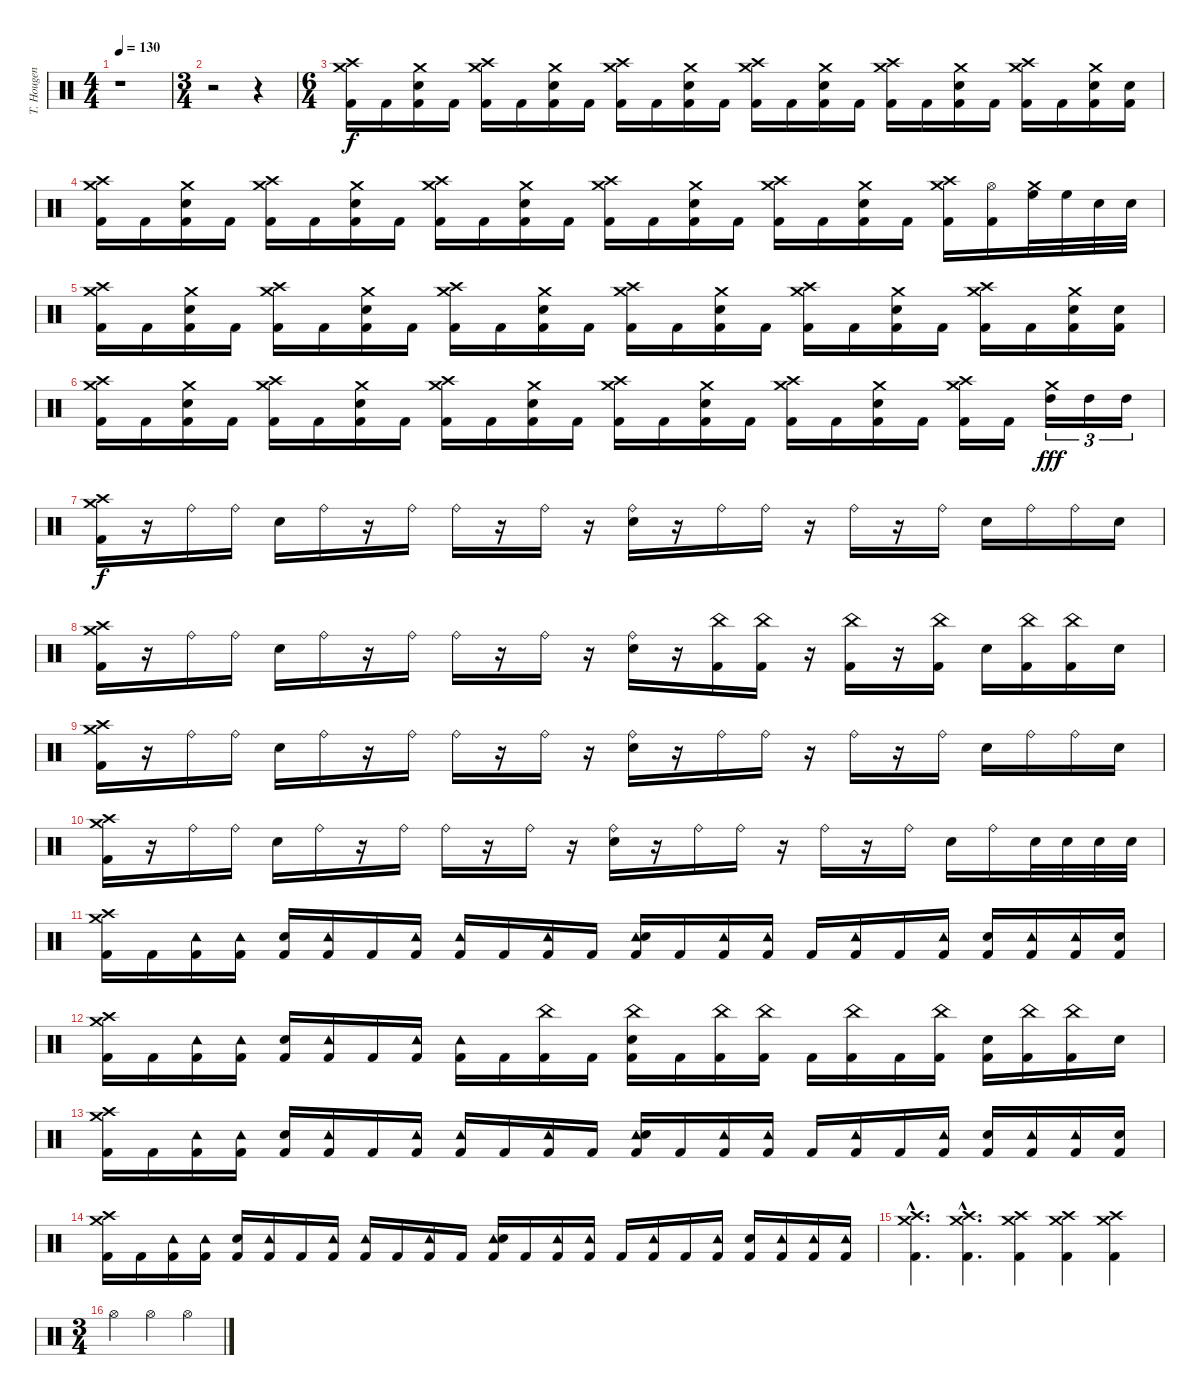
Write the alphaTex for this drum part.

\track ("T. Hougen - Drums" "T. Hougen ") {instrument percussion}
\staff {score}
\articulation defaults
\ts (4 4)
\tempo 130
\clef neutral
\ks c
r.1{dy f} |
\ts (3 4)
r.2 r.4 |
\ts (6 4)
("Crash medium (hit)" "Crash high (hit)" "Kick (hit) 2").16 "Kick (hit) 2".16 ("Crash medium (hit)" "Electric Snare (hit)" "Kick (hit) 2").16 "Kick (hit) 2".16 ("Crash medium (hit)" "Crash high (hit)" "Kick (hit) 2").16 "Kick (hit) 2".16 ("Crash medium (hit)" "Electric Snare (hit)" "Kick (hit) 2").16 "Kick (hit) 2".16 ("Crash medium (hit)" "Crash high (hit)" "Kick (hit) 2").16 "Kick (hit) 2".16 ("Crash medium (hit)" "Electric Snare (hit)" "Kick (hit) 2").16 "Kick (hit) 2".16 ("Crash medium (hit)" "Crash high (hit)" "Kick (hit) 2").16 "Kick (hit) 2".16 ("Crash medium (hit)" "Electric Snare (hit)" "Kick (hit) 2").16 "Kick (hit) 2".16 ("Crash medium (hit)" "Crash high (hit)" "Kick (hit) 2").16 "Kick (hit) 2".16 ("Crash medium (hit)" "Electric Snare (hit)" "Kick (hit) 2").16 "Kick (hit) 2".16 ("Crash medium (hit)" "Crash high (hit)" "Kick (hit) 2").16 "Kick (hit) 2".16 ("Crash medium (hit)" "Electric Snare (hit)" "Kick (hit) 2").16 ("Electric Snare (hit)" "Kick (hit) 2").16 |
("Crash medium (hit)" "Crash high (hit)" "Kick (hit) 2").16 "Kick (hit) 2".16 ("Crash medium (hit)" "Electric Snare (hit)" "Kick (hit) 2").16 "Kick (hit) 2".16 ("Crash medium (hit)" "Crash high (hit)" "Kick (hit) 2").16 "Kick (hit) 2".16 ("Crash medium (hit)" "Electric Snare (hit)" "Kick (hit) 2").16 "Kick (hit) 2".16 ("Crash medium (hit)" "Crash high (hit)" "Kick (hit) 2").16 "Kick (hit) 2".16 ("Crash medium (hit)" "Electric Snare (hit)" "Kick (hit) 2").16 "Kick (hit) 2".16 ("Crash medium (hit)" "Crash high (hit)" "Kick (hit) 2").16 "Kick (hit) 2".16 ("Crash medium (hit)" "Electric Snare (hit)" "Kick (hit) 2").16 "Kick (hit) 2".16 ("Crash medium (hit)" "Crash high (hit)" "Kick (hit) 2").16 "Kick (hit) 2".16 ("Crash medium (hit)" "Electric Snare (hit)" "Kick (hit) 2").16 "Kick (hit) 2".16 ("Crash medium (hit)" "Crash high (hit)" "Kick (hit) 2").16 ("Hi-Hat (open)" "Kick (hit) 2").16 ("Crash medium (hit)" "High Floor Tom (hit)").32 "High Floor Tom (hit)".32 "Electric Snare (hit)".32 "Electric Snare (hit)".32 |
("Crash medium (hit)" "Crash high (hit)" "Kick (hit) 2").16 "Kick (hit) 2".16 ("Crash medium (hit)" "Electric Snare (hit)" "Kick (hit) 2").16 "Kick (hit) 2".16 ("Crash medium (hit)" "Crash high (hit)" "Kick (hit) 2").16 "Kick (hit) 2".16 ("Crash medium (hit)" "Electric Snare (hit)" "Kick (hit) 2").16 "Kick (hit) 2".16 ("Crash medium (hit)" "Crash high (hit)" "Kick (hit) 2").16 "Kick (hit) 2".16 ("Crash medium (hit)" "Electric Snare (hit)" "Kick (hit) 2").16 "Kick (hit) 2".16 ("Crash medium (hit)" "Crash high (hit)" "Kick (hit) 2").16 "Kick (hit) 2".16 ("Crash medium (hit)" "Electric Snare (hit)" "Kick (hit) 2").16 "Kick (hit) 2".16 ("Crash medium (hit)" "Crash high (hit)" "Kick (hit) 2").16 "Kick (hit) 2".16 ("Crash medium (hit)" "Electric Snare (hit)" "Kick (hit) 2").16 "Kick (hit) 2".16 ("Crash medium (hit)" "Crash high (hit)" "Kick (hit) 2").16 "Kick (hit) 2".16 ("Crash medium (hit)" "Electric Snare (hit)" "Kick (hit) 2").16 ("Electric Snare (hit)" "Kick (hit) 2").16 |
("Crash medium (hit)" "Crash high (hit)" "Kick (hit) 2").16 "Kick (hit) 2".16 ("Crash medium (hit)" "Electric Snare (hit)" "Kick (hit) 2").16 "Kick (hit) 2".16 ("Crash medium (hit)" "Crash high (hit)" "Kick (hit) 2").16 "Kick (hit) 2".16 ("Crash medium (hit)" "Electric Snare (hit)" "Kick (hit) 2").16 "Kick (hit) 2".16 ("Crash medium (hit)" "Crash high (hit)" "Kick (hit) 2").16 "Kick (hit) 2".16 ("Crash medium (hit)" "Electric Snare (hit)" "Kick (hit) 2").16 "Kick (hit) 2".16 ("Crash medium (hit)" "Crash high (hit)" "Kick (hit) 2").16 "Kick (hit) 2".16 ("Crash medium (hit)" "Electric Snare (hit)" "Kick (hit) 2").16 "Kick (hit) 2".16 ("Crash medium (hit)" "Crash high (hit)" "Kick (hit) 2").16 "Kick (hit) 2".16 ("Crash medium (hit)" "Electric Snare (hit)" "Kick (hit) 2").16 "Kick (hit) 2".16 ("Crash medium (hit)" "Crash high (hit)" "Kick (hit) 2").16 "Kick (hit) 2".16 ("Crash medium (hit)" "High Tom (hit)").16{tu (3 2) dy fff} "High Tom (hit)".16{tu (3 2)} "High Tom (hit)".16{tu (3 2)} |
("Crash medium (hit)" "Crash high (hit)" "Kick (hit) 2").16{dy f} r.16 "Ride (bell)".16 "Ride (bell)".16 "Electric Snare (hit)".16 "Ride (bell)".16 r.16 "Ride (bell)".16 "Ride (bell)".16 r.16 "Ride (bell)".16 r.16 ("Ride (bell)" "Electric Snare (hit)").16 r.16 "Ride (bell)".16 "Ride (bell)".16 r.16 "Ride (bell)".16 r.16 "Ride (bell)".16 "Electric Snare (hit)".16 "Ride (bell)".16 "Ride (bell)".16 "Electric Snare (hit)".16 |
("Crash medium (hit)" "Crash high (hit)" "Kick (hit) 2").16 r.16 "Ride (bell)".16 "Ride (bell)".16 "Electric Snare (hit)".16 "Ride (bell)".16 r.16 "Ride (bell)".16 "Ride (bell)".16 r.16 "Ride (bell)".16 r.16 ("Ride (bell)" "Electric Snare (hit)").16 r.16 ("China (hit)" "Kick (hit) 2").16 ("China (hit)" "Kick (hit) 2").16 r.16 ("China (hit)" "Kick (hit) 2").16 r.16 ("China (hit)" "Kick (hit) 2").16 "Electric Snare (hit)".16 ("China (hit)" "Kick (hit) 2").16 ("China (hit)" "Kick (hit) 2").16 "Electric Snare (hit)".16 |
("Crash medium (hit)" "Crash high (hit)" "Kick (hit) 2").16 r.16 "Ride (bell)".16 "Ride (bell)".16 "Electric Snare (hit)".16 "Ride (bell)".16 r.16 "Ride (bell)".16 "Ride (bell)".16 r.16 "Ride (bell)".16 r.16 ("Ride (bell)" "Electric Snare (hit)").16 r.16 "Ride (bell)".16 "Ride (bell)".16 r.16 "Ride (bell)".16 r.16 "Ride (bell)".16 "Electric Snare (hit)".16 "Ride (bell)".16 "Ride (bell)".16 "Electric Snare (hit)".16 |
("Crash medium (hit)" "Crash high (hit)" "Kick (hit) 2").16 r.16 "Ride (bell)".16 "Ride (bell)".16 "Electric Snare (hit)".16 "Ride (bell)".16 r.16 "Ride (bell)".16 "Ride (bell)".16 r.16 "Ride (bell)".16 r.16 ("Ride (bell)" "Electric Snare (hit)").16 r.16 "Ride (bell)".16 "Ride (bell)".16 r.16 "Ride (bell)".16 r.16 "Ride (bell)".16 "Electric Snare (hit)".16 "Ride (bell)".16 "Electric Snare (hit)".32 "Electric Snare (hit)".32 "Electric Snare (hit)".32 "Electric Snare (hit)".32 |
("Crash medium (hit)" "Crash high (hit)" "Kick (hit) 2").16 "Kick (hit) 2".16 ("Tambourine (hit)" "Kick (hit) 2").16 ("Tambourine (hit)" "Kick (hit) 2").16 ("Electric Snare (hit)" "Kick (hit) 2").16 ("Tambourine (hit)" "Kick (hit) 2").16 "Kick (hit) 2".16 ("Tambourine (hit)" "Kick (hit) 2").16 ("Tambourine (hit)" "Kick (hit) 2").16 "Kick (hit) 2".16 ("Tambourine (hit)" "Kick (hit) 2").16 "Kick (hit) 2".16 ("Tambourine (hit)" "Electric Snare (hit)" "Kick (hit) 2").16 "Kick (hit) 2".16 ("Tambourine (hit)" "Kick (hit) 2").16 ("Tambourine (hit)" "Kick (hit) 2").16 "Kick (hit) 2".16 ("Tambourine (hit)" "Kick (hit) 2").16 "Kick (hit) 2".16 ("Tambourine (hit)" "Kick (hit) 2").16 ("Electric Snare (hit)" "Kick (hit) 2").16 ("Tambourine (hit)" "Kick (hit) 2").16 ("Tambourine (hit)" "Kick (hit) 2").16 ("Electric Snare (hit)" "Kick (hit) 2").16 |
("Crash medium (hit)" "Crash high (hit)" "Kick (hit) 2").16 "Kick (hit) 2".16 ("Tambourine (hit)" "Kick (hit) 2").16 ("Tambourine (hit)" "Kick (hit) 2").16 ("Electric Snare (hit)" "Kick (hit) 2").16 ("Tambourine (hit)" "Kick (hit) 2").16 "Kick (hit) 2".16 ("Tambourine (hit)" "Kick (hit) 2").16 ("Tambourine (hit)" "Kick (hit) 2").16 "Kick (hit) 2".16 ("China (hit)" "Kick (hit) 2").16 "Kick (hit) 2".16 ("China (hit)" "Electric Snare (hit)" "Kick (hit) 2").16 "Kick (hit) 2".16 ("China (hit)" "Kick (hit) 2").16 ("China (hit)" "Kick (hit) 2").16 "Kick (hit) 2".16 ("China (hit)" "Kick (hit) 2").16 "Kick (hit) 2".16 ("China (hit)" "Kick (hit) 2").16 ("Electric Snare (hit)" "Kick (hit) 2").16 ("China (hit)" "Kick (hit) 2").16 ("China (hit)" "Kick (hit) 2").16 "Electric Snare (hit)".16 |
("Crash medium (hit)" "Crash high (hit)" "Kick (hit) 2").16 "Kick (hit) 2".16 ("Tambourine (hit)" "Kick (hit) 2").16 ("Tambourine (hit)" "Kick (hit) 2").16 ("Electric Snare (hit)" "Kick (hit) 2").16 ("Tambourine (hit)" "Kick (hit) 2").16 "Kick (hit) 2".16 ("Tambourine (hit)" "Kick (hit) 2").16 ("Tambourine (hit)" "Kick (hit) 2").16 "Kick (hit) 2".16 ("Tambourine (hit)" "Kick (hit) 2").16 "Kick (hit) 2".16 ("Tambourine (hit)" "Electric Snare (hit)" "Kick (hit) 2").16 "Kick (hit) 2".16 ("Tambourine (hit)" "Kick (hit) 2").16 ("Tambourine (hit)" "Kick (hit) 2").16 "Kick (hit) 2".16 ("Tambourine (hit)" "Kick (hit) 2").16 "Kick (hit) 2".16 ("Tambourine (hit)" "Kick (hit) 2").16 ("Electric Snare (hit)" "Kick (hit) 2").16 ("Tambourine (hit)" "Kick (hit) 2").16 ("Tambourine (hit)" "Kick (hit) 2").16 ("Electric Snare (hit)" "Kick (hit) 2").16 |
("Crash medium (hit)" "Crash high (hit)" "Kick (hit) 2").16 "Kick (hit) 2".16 ("Tambourine (hit)" "Kick (hit) 2").16 ("Tambourine (hit)" "Kick (hit) 2").16 ("Electric Snare (hit)" "Kick (hit) 2").16 ("Tambourine (hit)" "Kick (hit) 2").16 "Kick (hit) 2".16 ("Tambourine (hit)" "Kick (hit) 2").16 ("Tambourine (hit)" "Kick (hit) 2").16 "Kick (hit) 2".16 ("Tambourine (hit)" "Kick (hit) 2").16 "Kick (hit) 2".16 ("Tambourine (hit)" "Electric Snare (hit)" "Kick (hit) 2").16 "Kick (hit) 2".16 ("Tambourine (hit)" "Kick (hit) 2").16 ("Tambourine (hit)" "Kick (hit) 2").16 "Kick (hit) 2".16 ("Tambourine (hit)" "Kick (hit) 2").16 "Kick (hit) 2".16 ("Tambourine (hit)" "Kick (hit) 2").16 ("Electric Snare (hit)" "Kick (hit) 2").16 ("Tambourine (hit)" "Kick (hit) 2").16 ("Tambourine (hit)" "Kick (hit) 2").16 ("Tambourine (hit)" "Kick (hit) 2").16 |
("Crash medium (hit)"{hac} "Crash high (hit)"{hac} "Kick (hit) 2"{hac}).4{d} ("Crash medium (hit)"{hac} "Crash high (hit)"{hac} "Kick (hit) 2"{hac}).4{d} ("Crash medium (hit)" "Crash high (hit)" "Kick (hit) 2").4 ("Crash medium (hit)" "Crash high (hit)" "Kick (hit) 2").4 ("Crash medium (hit)" "Crash high (hit)" "Kick (hit) 2").4 |
\ts (3 4)
"Hi-Hat (open)".4 "Hi-Hat (open)".4 "Hi-Hat (open)".4
